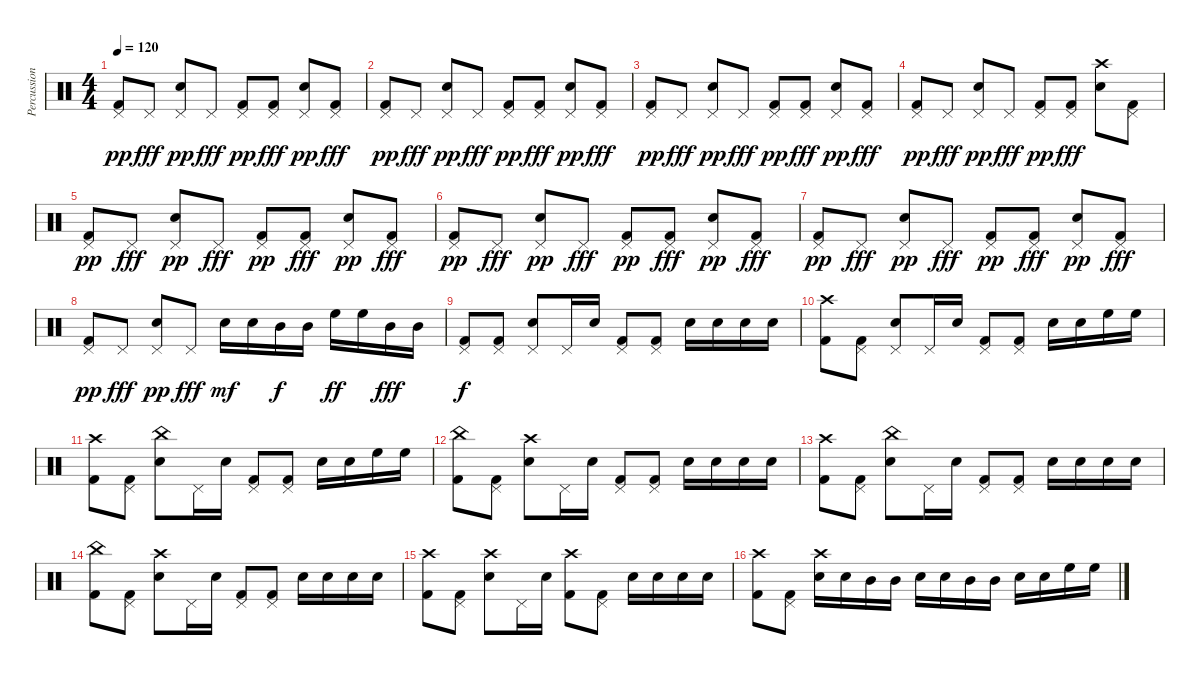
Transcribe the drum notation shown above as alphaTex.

\track ("Percussions" "Percussion") {instrument percussion}
\staff {score}
\articulation defaults
\ts (4 4)
\tempo 120
\clef neutral
\ks c
("Pedal Hi-Hat (hit)" "Kick (hit) 2").8{dy pp} "Pedal Hi-Hat (hit)".8{dy fff} ("Pedal Hi-Hat (hit)" "Snare (hit) 2").8{dy pp} "Pedal Hi-Hat (hit)".8{dy fff} ("Pedal Hi-Hat (hit)" "Kick (hit) 2").8{dy pp} ("Pedal Hi-Hat (hit)" "Kick (hit) 2").8{dy fff} ("Pedal Hi-Hat (hit)" "Snare (hit) 2").8{dy pp} ("Pedal Hi-Hat (hit)" "Kick (hit) 2").8{dy fff} |
("Pedal Hi-Hat (hit)" "Kick (hit) 2").8{dy pp} "Pedal Hi-Hat (hit)".8{dy fff} ("Pedal Hi-Hat (hit)" "Snare (hit) 2").8{dy pp} "Pedal Hi-Hat (hit)".8{dy fff} ("Pedal Hi-Hat (hit)" "Kick (hit) 2").8{dy pp} ("Pedal Hi-Hat (hit)" "Kick (hit) 2").8{dy fff} ("Pedal Hi-Hat (hit)" "Snare (hit) 2").8{dy pp} ("Pedal Hi-Hat (hit)" "Kick (hit) 2").8{dy fff} |
("Pedal Hi-Hat (hit)" "Kick (hit) 2").8{dy pp} "Pedal Hi-Hat (hit)".8{dy fff} ("Pedal Hi-Hat (hit)" "Snare (hit) 2").8{dy pp} "Pedal Hi-Hat (hit)".8{dy fff} ("Pedal Hi-Hat (hit)" "Kick (hit) 2").8{dy pp} ("Pedal Hi-Hat (hit)" "Kick (hit) 2").8{dy fff} ("Pedal Hi-Hat (hit)" "Snare (hit) 2").8{dy pp} ("Pedal Hi-Hat (hit)" "Kick (hit) 2").8{dy fff} |
("Pedal Hi-Hat (hit)" "Kick (hit) 2").8{dy pp} "Pedal Hi-Hat (hit)".8{dy fff} ("Pedal Hi-Hat (hit)" "Snare (hit) 2").8{dy pp} "Pedal Hi-Hat (hit)".8{dy fff} ("Pedal Hi-Hat (hit)" "Kick (hit) 2").8{dy pp} ("Pedal Hi-Hat (hit)" "Kick (hit) 2").8{dy fff} ("Crash high (hit)" "Snare (hit) 2").8 ("Pedal Hi-Hat (hit)" "Kick (hit) 2").8 |
("Pedal Hi-Hat (hit)" "Kick (hit) 2").8{dy pp} "Pedal Hi-Hat (hit)".8{dy fff} ("Pedal Hi-Hat (hit)" "Snare (hit) 2").8{dy pp} "Pedal Hi-Hat (hit)".8{dy fff} ("Pedal Hi-Hat (hit)" "Kick (hit) 2").8{dy pp} ("Pedal Hi-Hat (hit)" "Kick (hit) 2").8{dy fff} ("Pedal Hi-Hat (hit)" "Snare (hit) 2").8{dy pp} ("Pedal Hi-Hat (hit)" "Kick (hit) 2").8{dy fff} |
("Pedal Hi-Hat (hit)" "Kick (hit) 2").8{dy pp} "Pedal Hi-Hat (hit)".8{dy fff} ("Pedal Hi-Hat (hit)" "Snare (hit) 2").8{dy pp} "Pedal Hi-Hat (hit)".8{dy fff} ("Pedal Hi-Hat (hit)" "Kick (hit) 2").8{dy pp} ("Pedal Hi-Hat (hit)" "Kick (hit) 2").8{dy fff} ("Pedal Hi-Hat (hit)" "Snare (hit) 2").8{dy pp} ("Pedal Hi-Hat (hit)" "Kick (hit) 2").8{dy fff} |
("Pedal Hi-Hat (hit)" "Kick (hit) 2").8{dy pp} "Pedal Hi-Hat (hit)".8{dy fff} ("Pedal Hi-Hat (hit)" "Snare (hit) 2").8{dy pp} "Pedal Hi-Hat (hit)".8{dy fff} ("Pedal Hi-Hat (hit)" "Kick (hit) 2").8{dy pp} ("Pedal Hi-Hat (hit)" "Kick (hit) 2").8{dy fff} ("Pedal Hi-Hat (hit)" "Snare (hit) 2").8{dy pp} ("Pedal Hi-Hat (hit)" "Kick (hit) 2").8{dy fff} |
("Pedal Hi-Hat (hit)" "Kick (hit) 2").8{dy pp} "Pedal Hi-Hat (hit)".8{dy fff} ("Pedal Hi-Hat (hit)" "Snare (hit) 2").8{dy pp} "Pedal Hi-Hat (hit)".8{dy fff} "Snare (hit) 2".16{dy mf} "Snare (hit) 2".16 "Mid Tom (hit)".16{dy f} "Mid Tom (hit)".16 "High Floor Tom (hit)".16{dy ff} "High Floor Tom (hit)".16 "Mid Tom (hit)".16{dy fff} "Mid Tom (hit)".16 |
("Pedal Hi-Hat (hit)" "Kick (hit) 2").8{dy f} ("Pedal Hi-Hat (hit)" "Kick (hit) 2").8 ("Pedal Hi-Hat (hit)" "Snare (hit) 2").8 "Pedal Hi-Hat (hit)".16 "Snare (hit) 2".16 ("Pedal Hi-Hat (hit)" "Kick (hit) 2").8 ("Pedal Hi-Hat (hit)" "Kick (hit) 2").8 "Snare (hit) 2".16 "Snare (hit) 2".16 "Snare (hit) 2".16 "Snare (hit) 2".16 |
("Crash high (hit)" "Kick (hit) 2").8 ("Pedal Hi-Hat (hit)" "Kick (hit) 2").8 ("Pedal Hi-Hat (hit)" "Snare (hit) 2").8 "Pedal Hi-Hat (hit)".16 "Snare (hit) 2".16 ("Pedal Hi-Hat (hit)" "Kick (hit) 2").8 ("Pedal Hi-Hat (hit)" "Kick (hit) 2").8 "Snare (hit) 2".16 "Snare (hit) 2".16 "High Floor Tom (hit)".16 "High Floor Tom (hit)".16 |
("Crash high (hit)" "Kick (hit) 2").8 ("Pedal Hi-Hat (hit)" "Kick (hit) 2").8 ("China (hit)" "Snare (hit) 2").8 "Pedal Hi-Hat (hit)".16 "Snare (hit) 2".16 ("Pedal Hi-Hat (hit)" "Kick (hit) 2").8 ("Pedal Hi-Hat (hit)" "Kick (hit) 2").8 "Snare (hit) 2".16 "Snare (hit) 2".16 "High Floor Tom (hit)".16 "High Floor Tom (hit)".16 |
("China (hit)" "Kick (hit) 2").8 ("Pedal Hi-Hat (hit)" "Kick (hit) 2").8 ("Crash high (hit)" "Snare (hit) 2").8 "Pedal Hi-Hat (hit)".16 "Snare (hit) 2".16 ("Pedal Hi-Hat (hit)" "Kick (hit) 2").8 ("Pedal Hi-Hat (hit)" "Kick (hit) 2").8 "Snare (hit) 2".16 "Snare (hit) 2".16 "Snare (hit) 2".16 "Snare (hit) 2".16 |
("Crash high (hit)" "Kick (hit) 2").8 ("Pedal Hi-Hat (hit)" "Kick (hit) 2").8 ("China (hit)" "Snare (hit) 2").8 "Pedal Hi-Hat (hit)".16 "Snare (hit) 2".16 ("Pedal Hi-Hat (hit)" "Kick (hit) 2").8 ("Pedal Hi-Hat (hit)" "Kick (hit) 2").8 "Snare (hit) 2".16 "Snare (hit) 2".16 "Snare (hit) 2".16 "Snare (hit) 2".16 |
("China (hit)" "Kick (hit) 2").8 ("Pedal Hi-Hat (hit)" "Kick (hit) 2").8 ("Crash high (hit)" "Snare (hit) 2").8 "Pedal Hi-Hat (hit)".16 "Snare (hit) 2".16 ("Pedal Hi-Hat (hit)" "Kick (hit) 2").8 ("Pedal Hi-Hat (hit)" "Kick (hit) 2").8 "Snare (hit) 2".16 "Snare (hit) 2".16 "Snare (hit) 2".16 "Snare (hit) 2".16 |
("Crash high (hit)" "Kick (hit) 2").8 ("Pedal Hi-Hat (hit)" "Kick (hit) 2").8 ("Crash high (hit)" "Snare (hit) 2").8 "Pedal Hi-Hat (hit)".16 "Snare (hit) 2".16 ("Crash high (hit)" "Kick (hit) 2").8 ("Pedal Hi-Hat (hit)" "Kick (hit) 2").8 "Snare (hit) 2".16 "Snare (hit) 2".16 "Snare (hit) 2".16 "Snare (hit) 2".16 |
("Crash high (hit)" "Kick (hit) 2").8 ("Pedal Hi-Hat (hit)" "Kick (hit) 2").8 ("Crash high (hit)" "Snare (hit) 2").16 "Snare (hit) 2".16 "Mid Tom (hit)".16 "Mid Tom (hit)".16 "Snare (hit) 2".16 "Snare (hit) 2".16 "Mid Tom (hit)".16 "Mid Tom (hit)".16 "Snare (hit) 2".16 "Snare (hit) 2".16 "High Floor Tom (hit)".16 "High Floor Tom (hit)".16
